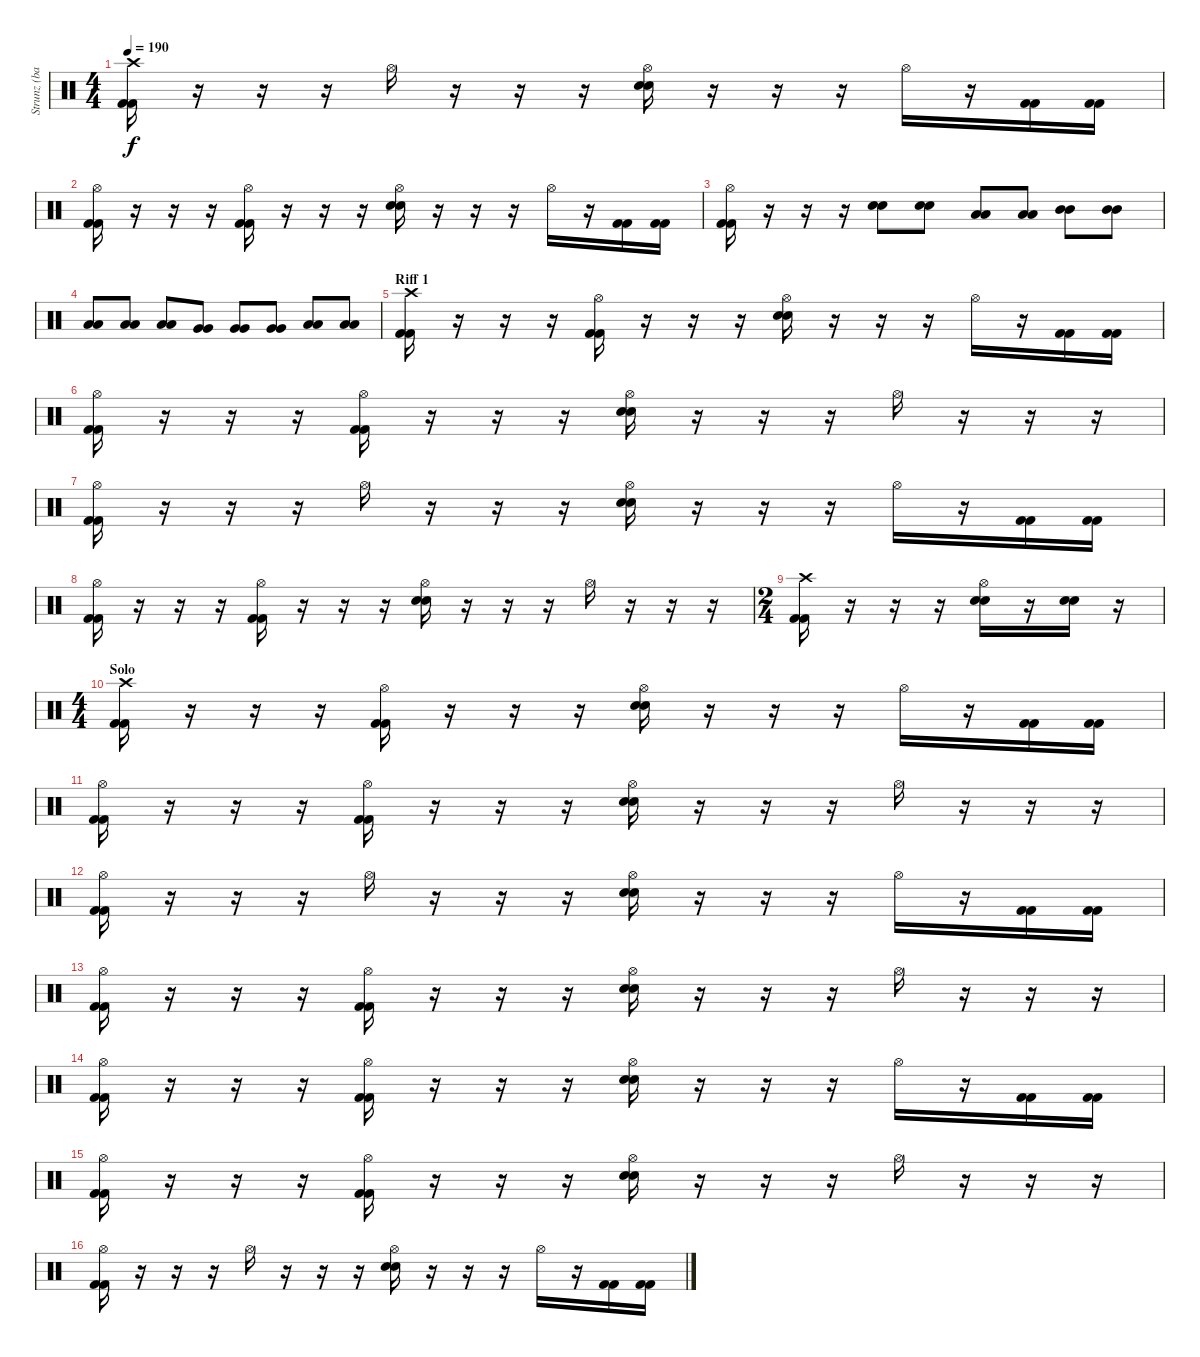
\track ("Strunz (bateria)" "Strunz (ba") {instrument percussion}
\staff {score}
\articulation defaults
\ts (4 4)
\tempo 190
\clef neutral
\ks c
("Crash high (hit)" "Kick (hit) 2" "Kick (hit) 2").16{dy f} r.16 r.16 r.16 "Hi-Hat (open)".16 r.16 r.16 r.16 ("Hi-Hat (open)" "Snare (hit) 2" "Snare (hit) 2").16 r.16 r.16 r.16 "Hi-Hat (open)".16 r.16 ("Kick (hit) 2" "Kick (hit) 2").16 ("Kick (hit) 2" "Kick (hit) 2").16 |
("Hi-Hat (open)" "Kick (hit) 2" "Kick (hit) 2").16 r.16 r.16 r.16 ("Hi-Hat (open)" "Kick (hit) 2" "Kick (hit) 2").16 r.16 r.16 r.16 ("Hi-Hat (open)" "Snare (hit) 2" "Snare (hit) 2").16 r.16 r.16 r.16 "Hi-Hat (open)".16 r.16 ("Kick (hit) 2" "Kick (hit) 2").16 ("Kick (hit) 2" "Kick (hit) 2").16 |
("Hi-Hat (open)" "Kick (hit) 2" "Kick (hit) 2").16 r.16 r.16 r.16 ("Snare (hit) 2" "Snare (hit) 2").8 ("Snare (hit) 2" "Snare (hit) 2").8 ("Low Tom (hit)" "Low Tom (hit)").8 ("Low Tom (hit)" "Low Tom (hit)").8 ("Mid Tom (hit)" "Mid Tom (hit)").8 ("Mid Tom (hit)" "Mid Tom (hit)").8 |
("Low Tom (hit)" "Low Tom (hit)").8 ("Low Tom (hit)" "Low Tom (hit)").8 ("Low Tom (hit)" "Low Tom (hit)").8 ("Very Low Tom (hit)" "Very Low Tom (hit)").8 ("Very Low Tom (hit)" "Very Low Tom (hit)").8 ("Very Low Tom (hit)" "Very Low Tom (hit)").8 ("Low Floor Tom (hit)" "Low Floor Tom (hit)").8 ("Low Floor Tom (hit)" "Low Floor Tom (hit)").8 |
\section ("" "Riff 1")
("Crash high (hit)" "Kick (hit) 2" "Kick (hit) 2").16 r.16 r.16 r.16 ("Hi-Hat (open)" "Kick (hit) 2" "Kick (hit) 2").16 r.16 r.16 r.16 ("Hi-Hat (open)" "Snare (hit) 2" "Snare (hit) 2").16 r.16 r.16 r.16 "Hi-Hat (open)".16 r.16 ("Kick (hit) 2" "Kick (hit) 2").16 ("Kick (hit) 2" "Kick (hit) 2").16 |
("Hi-Hat (open)" "Kick (hit) 2" "Kick (hit) 2").16 r.16 r.16 r.16 ("Hi-Hat (open)" "Kick (hit) 2" "Kick (hit) 2").16 r.16 r.16 r.16 ("Hi-Hat (open)" "Snare (hit) 2" "Snare (hit) 2").16 r.16 r.16 r.16 "Hi-Hat (open)".16 r.16 r.16 r.16 |
("Hi-Hat (open)" "Kick (hit) 2" "Kick (hit) 2").16 r.16 r.16 r.16 "Hi-Hat (open)".16 r.16 r.16 r.16 ("Hi-Hat (open)" "Snare (hit) 2" "Snare (hit) 2").16 r.16 r.16 r.16 "Hi-Hat (open)".16 r.16 ("Kick (hit) 2" "Kick (hit) 2").16 ("Kick (hit) 2" "Kick (hit) 2").16 |
("Hi-Hat (open)" "Kick (hit) 2" "Kick (hit) 2").16 r.16 r.16 r.16 ("Hi-Hat (open)" "Kick (hit) 2" "Kick (hit) 2").16 r.16 r.16 r.16 ("Hi-Hat (open)" "Snare (hit) 2" "Snare (hit) 2").16 r.16 r.16 r.16 "Hi-Hat (open)".16 r.16 r.16 r.16 |
\ts (2 4)
("Crash high (hit)" "Kick (hit) 2" "Kick (hit) 2").16 r.16 r.16 r.16 ("Hi-Hat (open)" "Snare (hit) 2" "Snare (hit) 2").16 r.16 ("Snare (hit) 2" "Snare (hit) 2").16 r.16 |
\ts (4 4)
\section ("" "Solo")
("Crash high (hit)" "Kick (hit) 2" "Kick (hit) 2").16 r.16 r.16 r.16 ("Hi-Hat (open)" "Kick (hit) 2" "Kick (hit) 2").16 r.16 r.16 r.16 ("Hi-Hat (open)" "Snare (hit) 2" "Snare (hit) 2").16 r.16 r.16 r.16 "Hi-Hat (open)".16 r.16 ("Kick (hit) 2" "Kick (hit) 2").16 ("Kick (hit) 2" "Kick (hit) 2").16 |
("Hi-Hat (open)" "Kick (hit) 2" "Kick (hit) 2").16 r.16 r.16 r.16 ("Hi-Hat (open)" "Kick (hit) 2" "Kick (hit) 2").16 r.16 r.16 r.16 ("Hi-Hat (open)" "Snare (hit) 2" "Snare (hit) 2").16 r.16 r.16 r.16 "Hi-Hat (open)".16 r.16 r.16 r.16 |
("Hi-Hat (open)" "Kick (hit) 2" "Kick (hit) 2").16 r.16 r.16 r.16 "Hi-Hat (open)".16 r.16 r.16 r.16 ("Hi-Hat (open)" "Snare (hit) 2" "Snare (hit) 2").16 r.16 r.16 r.16 "Hi-Hat (open)".16 r.16 ("Kick (hit) 2" "Kick (hit) 2").16 ("Kick (hit) 2" "Kick (hit) 2").16 |
("Hi-Hat (open)" "Kick (hit) 2" "Kick (hit) 2").16 r.16 r.16 r.16 ("Hi-Hat (open)" "Kick (hit) 2" "Kick (hit) 2").16 r.16 r.16 r.16 ("Hi-Hat (open)" "Snare (hit) 2" "Snare (hit) 2").16 r.16 r.16 r.16 "Hi-Hat (open)".16 r.16 r.16 r.16 |
("Hi-Hat (open)" "Kick (hit) 2" "Kick (hit) 2").16 r.16 r.16 r.16 ("Hi-Hat (open)" "Kick (hit) 2" "Kick (hit) 2").16 r.16 r.16 r.16 ("Hi-Hat (open)" "Snare (hit) 2" "Snare (hit) 2").16 r.16 r.16 r.16 "Hi-Hat (open)".16 r.16 ("Kick (hit) 2" "Kick (hit) 2").16 ("Kick (hit) 2" "Kick (hit) 2").16 |
("Hi-Hat (open)" "Kick (hit) 2" "Kick (hit) 2").16 r.16 r.16 r.16 ("Hi-Hat (open)" "Kick (hit) 2" "Kick (hit) 2").16 r.16 r.16 r.16 ("Hi-Hat (open)" "Snare (hit) 2" "Snare (hit) 2").16 r.16 r.16 r.16 "Hi-Hat (open)".16 r.16 r.16 r.16 |
("Hi-Hat (open)" "Kick (hit) 2" "Kick (hit) 2").16 r.16 r.16 r.16 "Hi-Hat (open)".16 r.16 r.16 r.16 ("Hi-Hat (open)" "Snare (hit) 2" "Snare (hit) 2").16 r.16 r.16 r.16 "Hi-Hat (open)".16 r.16 ("Kick (hit) 2" "Kick (hit) 2").16 ("Kick (hit) 2" "Kick (hit) 2").16
